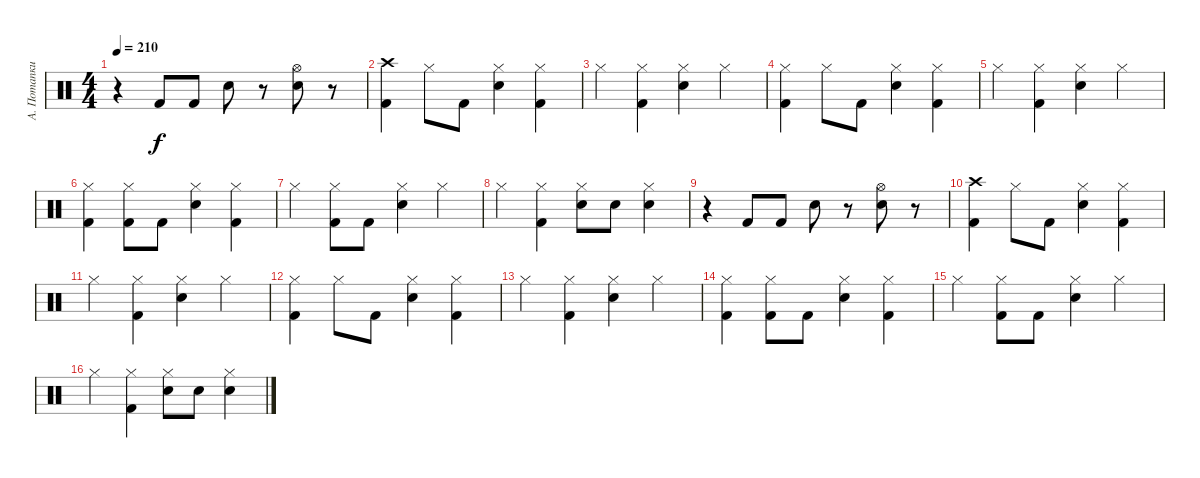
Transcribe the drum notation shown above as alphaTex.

\track ("А. Потапкин" "А. Потапки") {instrument percussion}
\staff {score}
\articulation defaults
\ts (4 4)
\tempo 210
\clef neutral
\ks c
r.4{dy f} "Kick (hit) 2".8 "Kick (hit) 2".8 "Snare (hit) 2".8 r.8 ("Hi-Hat (open)" "Snare (hit) 2").8 r.8 |
("Crash high (hit)" "Kick (hit) 2").4 "Hi-Hat (closed)".8 "Kick (hit) 2".8 ("Hi-Hat (closed)" "Snare (hit) 2").4 ("Hi-Hat (closed)" "Kick (hit) 2").4 |
"Hi-Hat (closed)".4 ("Hi-Hat (closed)" "Kick (hit) 2").4 ("Hi-Hat (closed)" "Snare (hit) 2").4 "Hi-Hat (closed)".4 |
("Hi-Hat (closed)" "Kick (hit) 2").4 "Hi-Hat (closed)".8 "Kick (hit) 2".8 ("Hi-Hat (closed)" "Snare (hit) 2").4 ("Hi-Hat (closed)" "Kick (hit) 2").4 |
"Hi-Hat (closed)".4 ("Hi-Hat (closed)" "Kick (hit) 2").4 ("Hi-Hat (closed)" "Snare (hit) 2").4 "Hi-Hat (closed)".4 |
("Hi-Hat (closed)" "Kick (hit) 2").4 ("Hi-Hat (closed)" "Kick (hit) 2").8 "Kick (hit) 2".8 ("Hi-Hat (closed)" "Snare (hit) 2").4 ("Hi-Hat (closed)" "Kick (hit) 2").4 |
"Hi-Hat (closed)".4 ("Hi-Hat (closed)" "Kick (hit) 2").8 "Kick (hit) 2".8 ("Hi-Hat (closed)" "Snare (hit) 2").4 "Hi-Hat (closed)".4 |
"Hi-Hat (closed)".4 ("Hi-Hat (closed)" "Kick (hit) 2").4 ("Hi-Hat (closed)" "Snare (hit) 2").8 "Snare (hit) 2".8 ("Hi-Hat (closed)" "Snare (hit) 2").4 |
r.4 "Kick (hit) 2".8 "Kick (hit) 2".8 "Snare (hit) 2".8 r.8 ("Hi-Hat (open)" "Snare (hit) 2").8 r.8 |
("Crash high (hit)" "Kick (hit) 2").4 "Hi-Hat (closed)".8 "Kick (hit) 2".8 ("Hi-Hat (closed)" "Snare (hit) 2").4 ("Hi-Hat (closed)" "Kick (hit) 2").4 |
"Hi-Hat (closed)".4 ("Hi-Hat (closed)" "Kick (hit) 2").4 ("Hi-Hat (closed)" "Snare (hit) 2").4 "Hi-Hat (closed)".4 |
("Hi-Hat (closed)" "Kick (hit) 2").4 "Hi-Hat (closed)".8 "Kick (hit) 2".8 ("Hi-Hat (closed)" "Snare (hit) 2").4 ("Hi-Hat (closed)" "Kick (hit) 2").4 |
"Hi-Hat (closed)".4 ("Hi-Hat (closed)" "Kick (hit) 2").4 ("Hi-Hat (closed)" "Snare (hit) 2").4 "Hi-Hat (closed)".4 |
("Hi-Hat (closed)" "Kick (hit) 2").4 ("Hi-Hat (closed)" "Kick (hit) 2").8 "Kick (hit) 2".8 ("Hi-Hat (closed)" "Snare (hit) 2").4 ("Hi-Hat (closed)" "Kick (hit) 2").4 |
"Hi-Hat (closed)".4 ("Hi-Hat (closed)" "Kick (hit) 2").8 "Kick (hit) 2".8 ("Hi-Hat (closed)" "Snare (hit) 2").4 "Hi-Hat (closed)".4 |
"Hi-Hat (closed)".4 ("Hi-Hat (closed)" "Kick (hit) 2").4 ("Hi-Hat (closed)" "Snare (hit) 2").8 "Snare (hit) 2".8 ("Hi-Hat (closed)" "Snare (hit) 2").4
